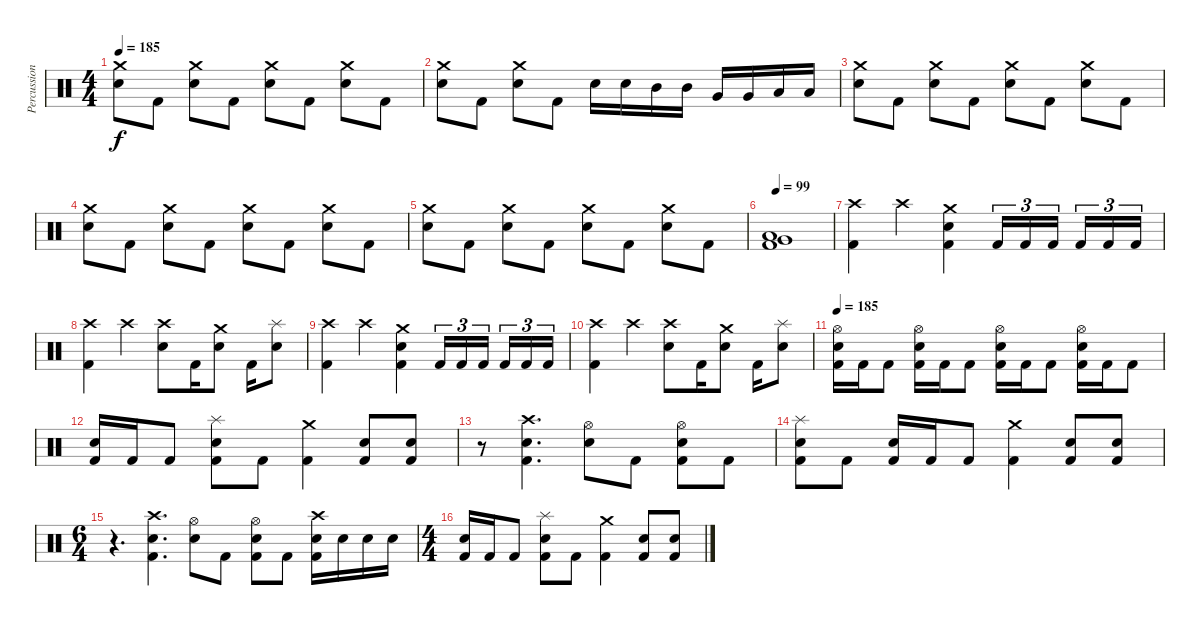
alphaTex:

\track ("Percussion" "Percussion") {instrument percussion}
\staff {score}
\articulation defaults
\ts (4 4)
\tempo 185
\clef neutral
\ks c
("Crash medium (hit)" "Electric Snare (hit)").8{dy f} "Kick (hit) 2".8 ("Crash medium (hit)" "Electric Snare (hit)").8 "Kick (hit) 2".8 ("Crash medium (hit)" "Electric Snare (hit)").8 "Kick (hit) 2".8 ("Crash medium (hit)" "Electric Snare (hit)").8 "Kick (hit) 2".8 |
("Crash medium (hit)" "Electric Snare (hit)").8 "Kick (hit) 2".8 ("Crash medium (hit)" "Electric Snare (hit)").8 "Kick (hit) 2".8 "Electric Snare (hit)".16 "Electric Snare (hit)".16 "Mid Tom (hit)".16 "Mid Tom (hit)".16 "Very Low Tom (hit)".16 "Very Low Tom (hit)".16 "Low Floor Tom (hit)".16 "Low Floor Tom (hit)".16 |
("Crash medium (hit)" "Electric Snare (hit)").8 "Kick (hit) 2".8 ("Crash medium (hit)" "Electric Snare (hit)").8 "Kick (hit) 2".8 ("Crash medium (hit)" "Electric Snare (hit)").8 "Kick (hit) 2".8 ("Crash medium (hit)" "Electric Snare (hit)").8 "Kick (hit) 2".8 |
("Crash medium (hit)" "Electric Snare (hit)").8 "Kick (hit) 2".8 ("Crash medium (hit)" "Electric Snare (hit)").8 "Kick (hit) 2".8 ("Crash medium (hit)" "Electric Snare (hit)").8 "Kick (hit) 2".8 ("Crash medium (hit)" "Electric Snare (hit)").8 "Kick (hit) 2".8 |
("Crash medium (hit)" "Electric Snare (hit)").8 "Kick (hit) 2".8 ("Crash medium (hit)" "Electric Snare (hit)").8 "Kick (hit) 2".8 ("Crash medium (hit)" "Electric Snare (hit)").8 "Kick (hit) 2".8 ("Crash medium (hit)" "Electric Snare (hit)").8 "Kick (hit) 2".8 |
\tempo 99
("Low Floor Tom (hit)" "Very Low Tom (hit)" "Kick (hit) 2").1 |
("Crash high (hit)" "Kick (hit) 2").4 "Crash high (hit)".4 ("Crash medium (hit)" "Electric Snare (hit)" "Kick (hit) 2").4 "Kick (hit) 2".16{tu (3 2)} "Kick (hit) 2".16{tu (3 2)} "Kick (hit) 2".16{tu (3 2) beam splitsecondary} "Kick (hit) 2".16{tu (3 2)} "Kick (hit) 2".16{tu (3 2)} "Kick (hit) 2".16{tu (3 2)} |
("Crash high (hit)" "Kick (hit) 2").4 "Crash high (hit)".4 ("Crash high (hit)" "Electric Snare (hit)").8 "Kick (hit) 2".16 ("Crash medium (hit)" "Electric Snare (hit)").8 "Kick (hit) 2".16 ("Splash (hit)" "Electric Snare (hit)").8 |
("Crash high (hit)" "Kick (hit) 2").4 "Crash high (hit)".4 ("Crash medium (hit)" "Electric Snare (hit)" "Kick (hit) 2").4 "Kick (hit) 2".16{tu (3 2)} "Kick (hit) 2".16{tu (3 2)} "Kick (hit) 2".16{tu (3 2) beam splitsecondary} "Kick (hit) 2".16{tu (3 2)} "Kick (hit) 2".16{tu (3 2)} "Kick (hit) 2".16{tu (3 2)} |
("Crash high (hit)" "Kick (hit) 2").4 "Crash high (hit)".4 ("Crash high (hit)" "Electric Snare (hit)").8 "Kick (hit) 2".16 ("Crash medium (hit)" "Electric Snare (hit)").8 "Kick (hit) 2".16 ("Splash (hit)" "Electric Snare (hit)").8 |
\tempo 185
("Hi-Hat (open)" "Electric Snare (hit)" "Kick (hit) 2").16 "Kick (hit) 2".16 "Kick (hit) 2".8 ("Hi-Hat (open)" "Electric Snare (hit)" "Kick (hit) 2").16 "Kick (hit) 2".16 "Kick (hit) 2".8 ("Hi-Hat (open)" "Electric Snare (hit)" "Kick (hit) 2").16 "Kick (hit) 2".16 "Kick (hit) 2".8 ("Hi-Hat (open)" "Electric Snare (hit)" "Kick (hit) 2").16 "Kick (hit) 2".16 "Kick (hit) 2".8 |
("Electric Snare (hit)" "Kick (hit) 2").16 "Kick (hit) 2".16 "Kick (hit) 2".8 ("Splash (hit)" "Electric Snare (hit)" "Kick (hit) 2").8 "Kick (hit) 2".8 ("Crash medium (hit)" "Kick (hit) 2").4 ("Electric Snare (hit)" "Kick (hit) 2").8 ("Electric Snare (hit)" "Kick (hit) 2").8 |
r.8 ("Crash high (hit)" "Electric Snare (hit)" "Kick (hit) 2").4{d} ("Hi-Hat (open)" "Electric Snare (hit)").8 "Kick (hit) 2".8 ("Hi-Hat (open)" "Electric Snare (hit)" "Kick (hit) 2").8 "Kick (hit) 2".8 |
("Splash (hit)" "Electric Snare (hit)" "Kick (hit) 2").8 "Kick (hit) 2".8 ("Electric Snare (hit)" "Kick (hit) 2").16 "Kick (hit) 2".16 "Kick (hit) 2".8 ("Crash medium (hit)" "Kick (hit) 2").4 ("Electric Snare (hit)" "Kick (hit) 2").8 ("Electric Snare (hit)" "Kick (hit) 2").8 |
\ts (6 4)
r.4{d} ("Crash high (hit)" "Electric Snare (hit)" "Kick (hit) 2").4{d} ("Hi-Hat (open)" "Electric Snare (hit)").8 "Kick (hit) 2".8 ("Hi-Hat (open)" "Electric Snare (hit)" "Kick (hit) 2").8 "Kick (hit) 2".8 ("Crash high (hit)" "Electric Snare (hit)" "Kick (hit) 2").16 "Electric Snare (hit)".16 "Electric Snare (hit)".16 "Electric Snare (hit)".16 |
\ts (4 4)
("Electric Snare (hit)" "Kick (hit) 2").16 "Kick (hit) 2".16 "Kick (hit) 2".8 ("Splash (hit)" "Electric Snare (hit)" "Kick (hit) 2").8 "Kick (hit) 2".8 ("Crash medium (hit)" "Kick (hit) 2").4 ("Electric Snare (hit)" "Kick (hit) 2").8 ("Electric Snare (hit)" "Kick (hit) 2").8
